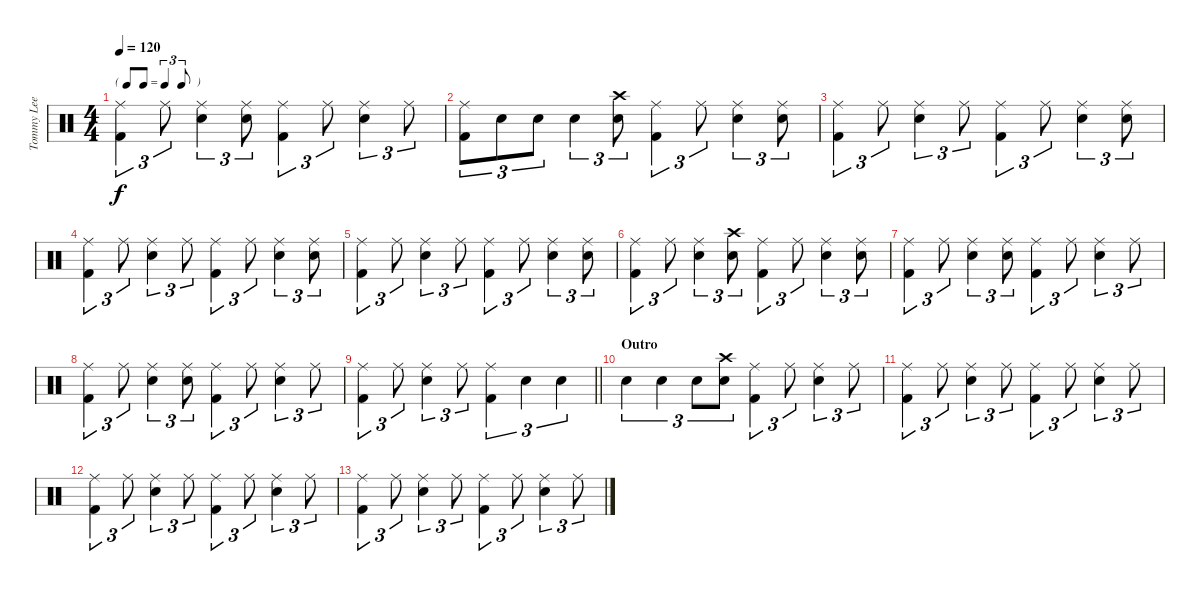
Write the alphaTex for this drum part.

\track ("Tommy Lee - Drums" "Tommy Lee ") {instrument percussion}
\staff {score}
\articulation defaults
\ts (4 4)
\tf triplet8th
\tempo 120
\clef neutral
\ks c
("Ride (middle)" "Kick (hit) 2").4{tu (3 2) dy f} "Ride (middle)".8{tu (3 2)} ("Ride (middle)" "Snare (hit) 2").4{tu (3 2)} ("Ride (middle)" "Snare (hit) 2").8{tu (3 2)} ("Ride (middle)" "Kick (hit) 2").4{tu (3 2)} "Ride (middle)".8{tu (3 2)} ("Ride (middle)" "Snare (hit) 2").4{tu (3 2)} "Ride (middle)".8{tu (3 2)} |
("Ride (middle)" "Kick (hit) 2").8{tu (3 2)} "Snare (hit) 2".8{tu (3 2)} "Snare (hit) 2".8{tu (3 2)} "Snare (hit) 2".4{tu (3 2)} ("Crash high (hit)" "Snare (hit) 2").8{tu (3 2)} ("Ride (middle)" "Kick (hit) 2").4{tu (3 2)} "Ride (middle)".8{tu (3 2)} ("Ride (middle)" "Snare (hit) 2").4{tu (3 2)} ("Ride (middle)" "Snare (hit) 2").8{tu (3 2)} |
("Ride (middle)" "Kick (hit) 2").4{tu (3 2)} "Ride (middle)".8{tu (3 2)} ("Ride (middle)" "Snare (hit) 2").4{tu (3 2)} "Ride (middle)".8{tu (3 2)} ("Ride (middle)" "Kick (hit) 2").4{tu (3 2)} "Ride (middle)".8{tu (3 2)} ("Ride (middle)" "Snare (hit) 2").4{tu (3 2)} ("Ride (middle)" "Snare (hit) 2").8{tu (3 2)} |
("Ride (middle)" "Kick (hit) 2").4{tu (3 2)} "Ride (middle)".8{tu (3 2)} ("Ride (middle)" "Snare (hit) 2").4{tu (3 2)} "Ride (middle)".8{tu (3 2)} ("Ride (middle)" "Kick (hit) 2").4{tu (3 2)} "Ride (middle)".8{tu (3 2)} ("Ride (middle)" "Snare (hit) 2").4{tu (3 2)} ("Ride (middle)" "Snare (hit) 2").8{tu (3 2)} |
("Ride (middle)" "Kick (hit) 2").4{tu (3 2)} "Ride (middle)".8{tu (3 2)} ("Ride (middle)" "Snare (hit) 2").4{tu (3 2)} "Ride (middle)".8{tu (3 2)} ("Ride (middle)" "Kick (hit) 2").4{tu (3 2)} "Ride (middle)".8{tu (3 2)} ("Ride (middle)" "Snare (hit) 2").4{tu (3 2)} ("Ride (middle)" "Snare (hit) 2").8{tu (3 2)} |
("Ride (middle)" "Kick (hit) 2").4{tu (3 2)} "Ride (middle)".8{tu (3 2)} ("Ride (middle)" "Snare (hit) 2").4{tu (3 2)} ("Crash high (hit)" "Snare (hit) 2").8{tu (3 2)} ("Ride (middle)" "Kick (hit) 2").4{tu (3 2)} "Ride (middle)".8{tu (3 2)} ("Ride (middle)" "Snare (hit) 2").4{tu (3 2)} ("Ride (middle)" "Snare (hit) 2").8{tu (3 2)} |
("Ride (middle)" "Kick (hit) 2").4{tu (3 2)} "Ride (middle)".8{tu (3 2)} ("Ride (middle)" "Snare (hit) 2").4{tu (3 2)} ("Ride (middle)" "Snare (hit) 2").8{tu (3 2)} ("Ride (middle)" "Kick (hit) 2").4{tu (3 2)} "Ride (middle)".8{tu (3 2)} ("Ride (middle)" "Snare (hit) 2").4{tu (3 2)} "Ride (middle)".8{tu (3 2)} |
("Ride (middle)" "Kick (hit) 2").4{tu (3 2)} "Ride (middle)".8{tu (3 2)} ("Ride (middle)" "Snare (hit) 2").4{tu (3 2)} ("Ride (middle)" "Snare (hit) 2").8{tu (3 2)} ("Ride (middle)" "Kick (hit) 2").4{tu (3 2)} "Ride (middle)".8{tu (3 2)} ("Ride (middle)" "Snare (hit) 2").4{tu (3 2)} "Ride (middle)".8{tu (3 2)} |
\barLineRight lightlight
("Ride (middle)" "Kick (hit) 2").4{tu (3 2)} "Ride (middle)".8{tu (3 2)} ("Ride (middle)" "Snare (hit) 2").4{tu (3 2)} "Ride (middle)".8{tu (3 2)} ("Ride (middle)" "Kick (hit) 2").4{tu (3 2)} "Snare (hit) 2".4{tu (3 2)} "Snare (hit) 2".4{tu (3 2)} |
\section ("" "Outro")
"Snare (hit) 2".4{tu (3 2)} "Snare (hit) 2".4{tu (3 2)} "Snare (hit) 2".8{tu (3 2)} ("Crash high (hit)" "Snare (hit) 2").8{tu (3 2)} ("Ride (middle)" "Kick (hit) 2").4{tu (3 2)} "Ride (middle)".8{tu (3 2)} ("Ride (middle)" "Snare (hit) 2").4{tu (3 2)} "Ride (middle)".8{tu (3 2)} |
("Ride (middle)" "Kick (hit) 2").4{tu (3 2)} "Ride (middle)".8{tu (3 2)} ("Ride (middle)" "Snare (hit) 2").4{tu (3 2)} "Ride (middle)".8{tu (3 2)} ("Ride (middle)" "Kick (hit) 2").4{tu (3 2)} "Ride (middle)".8{tu (3 2)} ("Ride (middle)" "Snare (hit) 2").4{tu (3 2)} "Ride (middle)".8{tu (3 2)} |
("Ride (middle)" "Kick (hit) 2").4{tu (3 2)} "Ride (middle)".8{tu (3 2)} ("Ride (middle)" "Snare (hit) 2").4{tu (3 2)} "Ride (middle)".8{tu (3 2)} ("Ride (middle)" "Kick (hit) 2").4{tu (3 2)} "Ride (middle)".8{tu (3 2)} ("Ride (middle)" "Snare (hit) 2").4{tu (3 2)} "Ride (middle)".8{tu (3 2)} |
("Ride (middle)" "Kick (hit) 2").4{tu (3 2)} "Ride (middle)".8{tu (3 2)} ("Ride (middle)" "Snare (hit) 2").4{tu (3 2)} "Ride (middle)".8{tu (3 2)} ("Ride (middle)" "Kick (hit) 2").4{tu (3 2)} "Ride (middle)".8{tu (3 2)} ("Ride (middle)" "Snare (hit) 2").4{tu (3 2)} "Ride (middle)".8{tu (3 2)}
